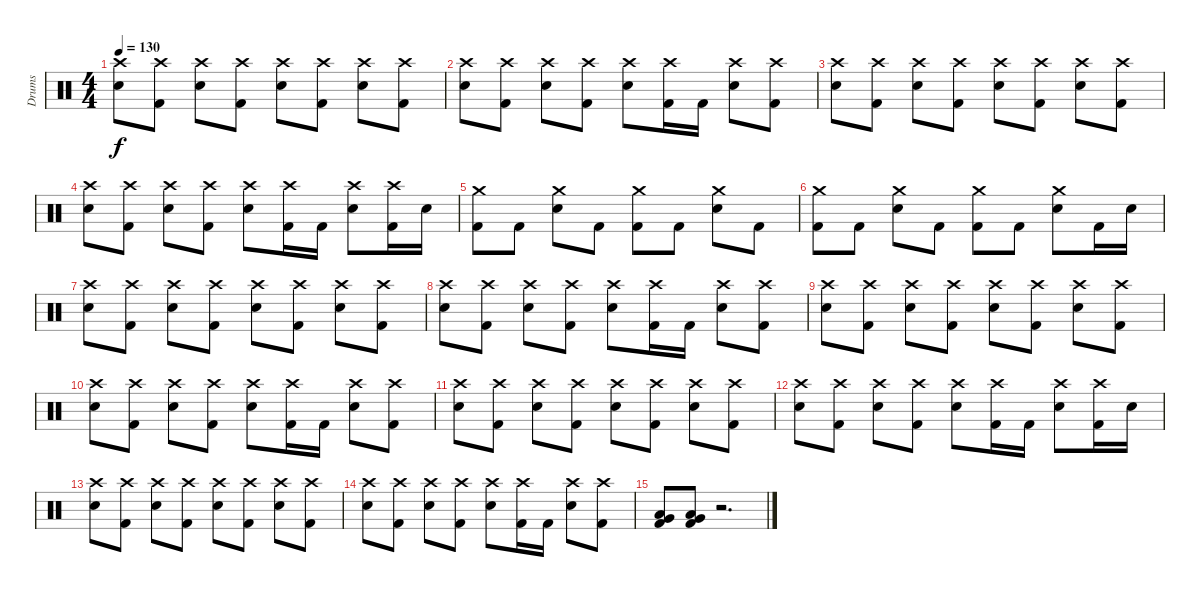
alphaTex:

\track ("Drums" "Drums") {instrument percussion}
\staff {score}
\articulation defaults
\ts (4 4)
\tempo 130
\clef neutral
\ks c
("Crash high (hit)" "Snare (hit) 2").8{dy f} ("Crash high (hit)" "Kick (hit) 2").8 ("Crash high (hit)" "Snare (hit) 2").8 ("Crash high (hit)" "Kick (hit) 2").8 ("Crash high (hit)" "Snare (hit) 2").8 ("Crash high (hit)" "Kick (hit) 2").8 ("Crash high (hit)" "Snare (hit) 2").8 ("Crash high (hit)" "Kick (hit) 2").8 |
("Crash high (hit)" "Snare (hit) 2").8 ("Crash high (hit)" "Kick (hit) 2").8 ("Crash high (hit)" "Snare (hit) 2").8 ("Crash high (hit)" "Kick (hit) 2").8 ("Crash high (hit)" "Snare (hit) 2").8 ("Crash high (hit)" "Kick (hit) 2").16 "Kick (hit) 2".16 ("Crash high (hit)" "Snare (hit) 2").8 ("Crash high (hit)" "Kick (hit) 2").8 |
("Crash high (hit)" "Snare (hit) 2").8 ("Crash high (hit)" "Kick (hit) 2").8 ("Crash high (hit)" "Snare (hit) 2").8 ("Crash high (hit)" "Kick (hit) 2").8 ("Crash high (hit)" "Snare (hit) 2").8 ("Crash high (hit)" "Kick (hit) 2").8 ("Crash high (hit)" "Snare (hit) 2").8 ("Crash high (hit)" "Kick (hit) 2").8 |
("Crash high (hit)" "Snare (hit) 2").8 ("Crash high (hit)" "Kick (hit) 2").8 ("Crash high (hit)" "Snare (hit) 2").8 ("Crash high (hit)" "Kick (hit) 2").8 ("Crash high (hit)" "Snare (hit) 2").8 ("Crash high (hit)" "Kick (hit) 2").16 "Kick (hit) 2".16 ("Crash high (hit)" "Snare (hit) 2").8 ("Crash high (hit)" "Kick (hit) 2").16 "Snare (hit) 2".16 |
("Crash medium (hit)" "Kick (hit) 2").8 "Kick (hit) 2".8 ("Crash medium (hit)" "Snare (hit) 2").8 "Kick (hit) 2".8 ("Crash medium (hit)" "Kick (hit) 2").8 "Kick (hit) 2".8 ("Crash medium (hit)" "Snare (hit) 2").8 "Kick (hit) 2".8 |
("Crash medium (hit)" "Kick (hit) 2").8 "Kick (hit) 2".8 ("Crash medium (hit)" "Snare (hit) 2").8 "Kick (hit) 2".8 ("Crash medium (hit)" "Kick (hit) 2").8 "Kick (hit) 2".8 ("Crash medium (hit)" "Snare (hit) 2").8 "Kick (hit) 2".16 "Snare (hit) 2".16 |
("Crash high (hit)" "Snare (hit) 2").8 ("Crash high (hit)" "Kick (hit) 2").8 ("Crash high (hit)" "Snare (hit) 2").8 ("Crash high (hit)" "Kick (hit) 2").8 ("Crash high (hit)" "Snare (hit) 2").8 ("Crash high (hit)" "Kick (hit) 2").8 ("Crash high (hit)" "Snare (hit) 2").8 ("Crash high (hit)" "Kick (hit) 2").8 |
("Crash high (hit)" "Snare (hit) 2").8 ("Crash high (hit)" "Kick (hit) 2").8 ("Crash high (hit)" "Snare (hit) 2").8 ("Crash high (hit)" "Kick (hit) 2").8 ("Crash high (hit)" "Snare (hit) 2").8 ("Crash high (hit)" "Kick (hit) 2").16 "Kick (hit) 2".16 ("Crash high (hit)" "Snare (hit) 2").8 ("Crash high (hit)" "Kick (hit) 2").8 |
("Crash high (hit)" "Snare (hit) 2").8 ("Crash high (hit)" "Kick (hit) 2").8 ("Crash high (hit)" "Snare (hit) 2").8 ("Crash high (hit)" "Kick (hit) 2").8 ("Crash high (hit)" "Snare (hit) 2").8 ("Crash high (hit)" "Kick (hit) 2").8 ("Crash high (hit)" "Snare (hit) 2").8 ("Crash high (hit)" "Kick (hit) 2").8 |
("Crash high (hit)" "Snare (hit) 2").8 ("Crash high (hit)" "Kick (hit) 2").8 ("Crash high (hit)" "Snare (hit) 2").8 ("Crash high (hit)" "Kick (hit) 2").8 ("Crash high (hit)" "Snare (hit) 2").8 ("Crash high (hit)" "Kick (hit) 2").16 "Kick (hit) 2".16 ("Crash high (hit)" "Snare (hit) 2").8 ("Crash high (hit)" "Kick (hit) 2").8 |
("Crash high (hit)" "Snare (hit) 2").8 ("Crash high (hit)" "Kick (hit) 2").8 ("Crash high (hit)" "Snare (hit) 2").8 ("Crash high (hit)" "Kick (hit) 2").8 ("Crash high (hit)" "Snare (hit) 2").8 ("Crash high (hit)" "Kick (hit) 2").8 ("Crash high (hit)" "Snare (hit) 2").8 ("Crash high (hit)" "Kick (hit) 2").8 |
("Crash high (hit)" "Snare (hit) 2").8 ("Crash high (hit)" "Kick (hit) 2").8 ("Crash high (hit)" "Snare (hit) 2").8 ("Crash high (hit)" "Kick (hit) 2").8 ("Crash high (hit)" "Snare (hit) 2").8 ("Crash high (hit)" "Kick (hit) 2").16 "Kick (hit) 2".16 ("Crash high (hit)" "Snare (hit) 2").8 ("Crash high (hit)" "Kick (hit) 2").16 "Snare (hit) 2".16 |
("Crash high (hit)" "Snare (hit) 2").8 ("Crash high (hit)" "Kick (hit) 2").8 ("Crash high (hit)" "Snare (hit) 2").8 ("Crash high (hit)" "Kick (hit) 2").8 ("Crash high (hit)" "Snare (hit) 2").8 ("Crash high (hit)" "Kick (hit) 2").8 ("Crash high (hit)" "Snare (hit) 2").8 ("Crash high (hit)" "Kick (hit) 2").8 |
("Crash high (hit)" "Snare (hit) 2").8 ("Crash high (hit)" "Kick (hit) 2").8 ("Crash high (hit)" "Snare (hit) 2").8 ("Crash high (hit)" "Kick (hit) 2").8 ("Crash high (hit)" "Snare (hit) 2").8 ("Crash high (hit)" "Kick (hit) 2").16 "Kick (hit) 2".16 ("Crash high (hit)" "Snare (hit) 2").8 ("Crash high (hit)" "Kick (hit) 2").8 |
("Very Low Tom (hit)" "Low Tom (hit)" "Kick (hit) 2").8 ("Very Low Tom (hit)" "Low Tom (hit)" "Kick (hit) 2").8 r.2{d}
